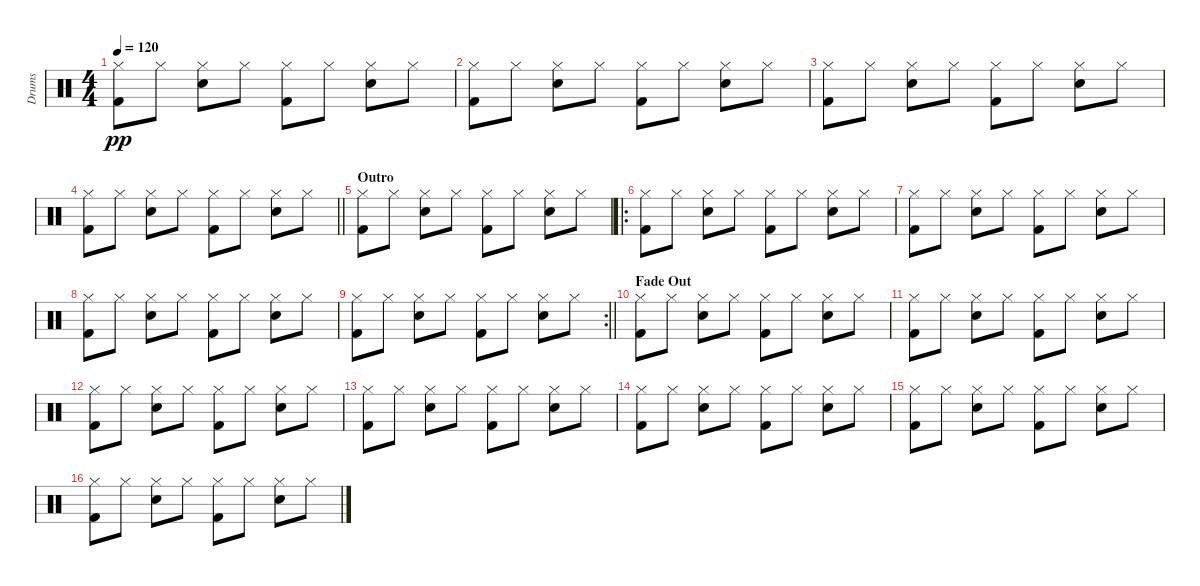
\track ("Drums" "Drums") {instrument percussion}
\staff {score}
\articulation defaults
\ts (4 4)
\tempo 120
\clef neutral
\ks c
("Hi-Hat (closed)" "Kick (hit) 2").8{dy pp} "Hi-Hat (closed)".8 ("Hi-Hat (closed)" "Electric Snare (hit)").8 "Hi-Hat (closed)".8 ("Hi-Hat (closed)" "Kick (hit) 2").8 "Hi-Hat (closed)".8 ("Hi-Hat (closed)" "Electric Snare (hit)").8 "Hi-Hat (closed)".8 |
("Hi-Hat (closed)" "Kick (hit) 2").8 "Hi-Hat (closed)".8 ("Hi-Hat (closed)" "Electric Snare (hit)").8 "Hi-Hat (closed)".8 ("Hi-Hat (closed)" "Kick (hit) 2").8 "Hi-Hat (closed)".8 ("Hi-Hat (closed)" "Electric Snare (hit)").8 "Hi-Hat (closed)".8 |
("Hi-Hat (closed)" "Kick (hit) 2").8 "Hi-Hat (closed)".8 ("Hi-Hat (closed)" "Electric Snare (hit)").8 "Hi-Hat (closed)".8 ("Hi-Hat (closed)" "Kick (hit) 2").8 "Hi-Hat (closed)".8 ("Hi-Hat (closed)" "Electric Snare (hit)").8 "Hi-Hat (closed)".8 |
\barLineRight lightlight
("Hi-Hat (closed)" "Kick (hit) 2").8 "Hi-Hat (closed)".8 ("Hi-Hat (closed)" "Electric Snare (hit)").8 "Hi-Hat (closed)".8 ("Hi-Hat (closed)" "Kick (hit) 2").8 "Hi-Hat (closed)".8 ("Hi-Hat (closed)" "Electric Snare (hit)").8 "Hi-Hat (closed)".8 |
\section ("" "Outro")
("Hi-Hat (closed)" "Kick (hit) 2").8 "Hi-Hat (closed)".8 ("Hi-Hat (closed)" "Electric Snare (hit)").8 "Hi-Hat (closed)".8 ("Hi-Hat (closed)" "Kick (hit) 2").8 "Hi-Hat (closed)".8 ("Hi-Hat (closed)" "Electric Snare (hit)").8 "Hi-Hat (closed)".8 |
\ro
("Hi-Hat (closed)" "Kick (hit) 2").8 "Hi-Hat (closed)".8 ("Hi-Hat (closed)" "Electric Snare (hit)").8 "Hi-Hat (closed)".8 ("Hi-Hat (closed)" "Kick (hit) 2").8 "Hi-Hat (closed)".8 ("Hi-Hat (closed)" "Electric Snare (hit)").8 "Hi-Hat (closed)".8 |
("Hi-Hat (closed)" "Kick (hit) 2").8 "Hi-Hat (closed)".8 ("Hi-Hat (closed)" "Electric Snare (hit)").8 "Hi-Hat (closed)".8 ("Hi-Hat (closed)" "Kick (hit) 2").8 "Hi-Hat (closed)".8 ("Hi-Hat (closed)" "Electric Snare (hit)").8 "Hi-Hat (closed)".8 |
("Hi-Hat (closed)" "Kick (hit) 2").8 "Hi-Hat (closed)".8 ("Hi-Hat (closed)" "Electric Snare (hit)").8 "Hi-Hat (closed)".8 ("Hi-Hat (closed)" "Kick (hit) 2").8 "Hi-Hat (closed)".8 ("Hi-Hat (closed)" "Electric Snare (hit)").8 "Hi-Hat (closed)".8 |
\rc 2
\barLineRight lightlight
("Hi-Hat (closed)" "Kick (hit) 2").8 "Hi-Hat (closed)".8 ("Hi-Hat (closed)" "Electric Snare (hit)").8 "Hi-Hat (closed)".8 ("Hi-Hat (closed)" "Kick (hit) 2").8 "Hi-Hat (closed)".8 ("Hi-Hat (closed)" "Electric Snare (hit)").8 "Hi-Hat (closed)".8 |
\section ("" "Fade Out")
("Hi-Hat (closed)" "Kick (hit) 2").8{volume 5} "Hi-Hat (closed)".8 ("Hi-Hat (closed)" "Electric Snare (hit)").8 "Hi-Hat (closed)".8 ("Hi-Hat (closed)" "Kick (hit) 2").8 "Hi-Hat (closed)".8 ("Hi-Hat (closed)" "Electric Snare (hit)").8 "Hi-Hat (closed)".8 |
("Hi-Hat (closed)" "Kick (hit) 2").8 "Hi-Hat (closed)".8 ("Hi-Hat (closed)" "Electric Snare (hit)").8 "Hi-Hat (closed)".8 ("Hi-Hat (closed)" "Kick (hit) 2").8 "Hi-Hat (closed)".8 ("Hi-Hat (closed)" "Electric Snare (hit)").8 "Hi-Hat (closed)".8 |
("Hi-Hat (closed)" "Kick (hit) 2").8 "Hi-Hat (closed)".8 ("Hi-Hat (closed)" "Electric Snare (hit)").8 "Hi-Hat (closed)".8 ("Hi-Hat (closed)" "Kick (hit) 2").8 "Hi-Hat (closed)".8 ("Hi-Hat (closed)" "Electric Snare (hit)").8 "Hi-Hat (closed)".8 |
("Hi-Hat (closed)" "Kick (hit) 2").8 "Hi-Hat (closed)".8 ("Hi-Hat (closed)" "Electric Snare (hit)").8 "Hi-Hat (closed)".8 ("Hi-Hat (closed)" "Kick (hit) 2").8 "Hi-Hat (closed)".8 ("Hi-Hat (closed)" "Electric Snare (hit)").8 "Hi-Hat (closed)".8 |
("Hi-Hat (closed)" "Kick (hit) 2").8{volume 0} "Hi-Hat (closed)".8 ("Hi-Hat (closed)" "Electric Snare (hit)").8 "Hi-Hat (closed)".8 ("Hi-Hat (closed)" "Kick (hit) 2").8 "Hi-Hat (closed)".8 ("Hi-Hat (closed)" "Electric Snare (hit)").8 "Hi-Hat (closed)".8 |
("Hi-Hat (closed)" "Kick (hit) 2").8 "Hi-Hat (closed)".8 ("Hi-Hat (closed)" "Electric Snare (hit)").8 "Hi-Hat (closed)".8 ("Hi-Hat (closed)" "Kick (hit) 2").8 "Hi-Hat (closed)".8 ("Hi-Hat (closed)" "Electric Snare (hit)").8 "Hi-Hat (closed)".8 |
("Hi-Hat (closed)" "Kick (hit) 2").8 "Hi-Hat (closed)".8 ("Hi-Hat (closed)" "Electric Snare (hit)").8 "Hi-Hat (closed)".8 ("Hi-Hat (closed)" "Kick (hit) 2").8 "Hi-Hat (closed)".8 ("Hi-Hat (closed)" "Electric Snare (hit)").8 "Hi-Hat (closed)".8
